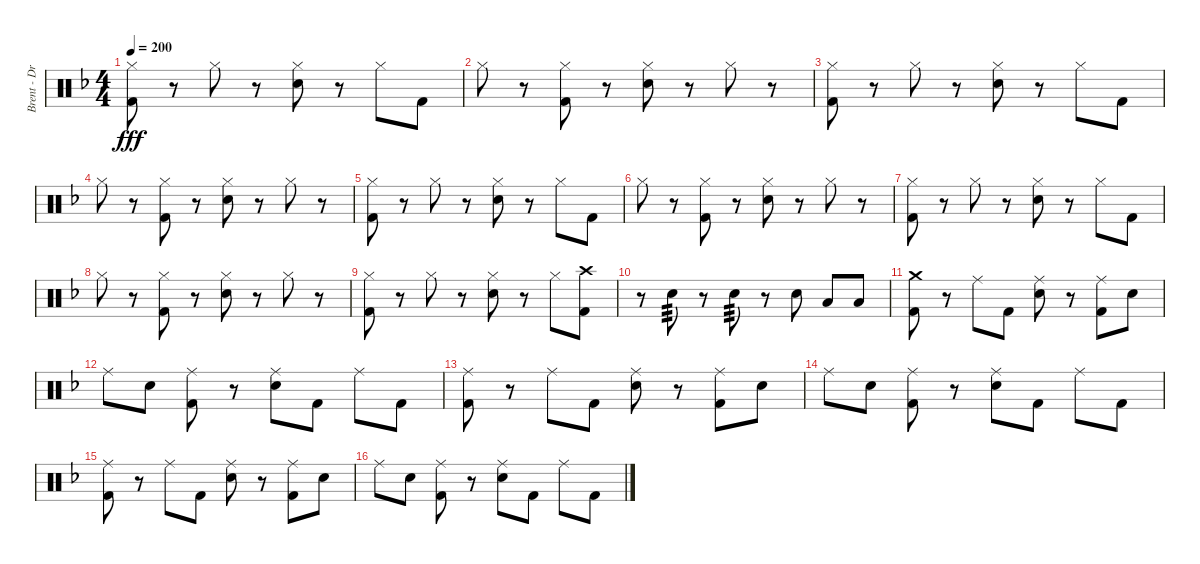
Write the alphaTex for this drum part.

\track ("Brent - Drums" "Brent - Dr") {instrument percussion}
\staff {score}
\articulation defaults
\ts (4 4)
\tempo 200
\clef neutral
\ks dminor
("Hi-Hat (closed)" "Kick (hit) 2").8{dy fff} r.8 "Hi-Hat (closed)".8 r.8 ("Hi-Hat (closed)" "Snare (hit) 2").8 r.8 "Hi-Hat (closed)".8 "Kick (hit) 2".8 |
"Hi-Hat (closed)".8 r.8 ("Hi-Hat (closed)" "Kick (hit) 2").8 r.8 ("Hi-Hat (closed)" "Snare (hit) 2").8 r.8 "Hi-Hat (closed)".8 r.8 |
("Hi-Hat (closed)" "Kick (hit) 2").8 r.8 "Hi-Hat (closed)".8 r.8 ("Hi-Hat (closed)" "Snare (hit) 2").8 r.8 "Hi-Hat (closed)".8 "Kick (hit) 2".8 |
"Hi-Hat (closed)".8 r.8 ("Hi-Hat (closed)" "Kick (hit) 2").8 r.8 ("Hi-Hat (closed)" "Snare (hit) 2").8 r.8 "Hi-Hat (closed)".8 r.8 |
("Hi-Hat (closed)" "Kick (hit) 2").8 r.8 "Hi-Hat (closed)".8 r.8 ("Hi-Hat (closed)" "Snare (hit) 2").8 r.8 "Hi-Hat (closed)".8 "Kick (hit) 2".8 |
"Hi-Hat (closed)".8 r.8 ("Hi-Hat (closed)" "Kick (hit) 2").8 r.8 ("Hi-Hat (closed)" "Snare (hit) 2").8 r.8 "Hi-Hat (closed)".8 r.8 |
("Hi-Hat (closed)" "Kick (hit) 2").8 r.8 "Hi-Hat (closed)".8 r.8 ("Hi-Hat (closed)" "Snare (hit) 2").8 r.8 "Hi-Hat (closed)".8 "Kick (hit) 2".8 |
"Hi-Hat (closed)".8 r.8 ("Hi-Hat (closed)" "Kick (hit) 2").8 r.8 ("Hi-Hat (closed)" "Snare (hit) 2").8 r.8 "Hi-Hat (closed)".8 r.8 |
("Hi-Hat (closed)" "Kick (hit) 2").8 r.8 "Hi-Hat (closed)".8 r.8 ("Hi-Hat (closed)" "Snare (hit) 2").8 r.8 "Hi-Hat (closed)".8 ("Crash high (hit)" "Kick (hit) 2").8 |
r.8 "Snare (hit) 2".8{tp 3} r.8 "Snare (hit) 2".8{tp 3} r.8 "Snare (hit) 2".8 "Low Tom (hit)".8 "Low Tom (hit)".8 |
("Crash medium (hit)" "Kick (hit) 2").8 r.8 "Ride (middle)".8 "Kick (hit) 2".8 ("Ride (middle)" "Snare (hit) 2").8 r.8 ("Ride (middle)" "Kick (hit) 2").8 "Snare (hit) 2".8 |
"Ride (middle)".8 "Snare (hit) 2".8 ("Ride (middle)" "Kick (hit) 2").8 r.8 ("Ride (middle)" "Snare (hit) 2").8 "Kick (hit) 2".8 "Ride (middle)".8 "Kick (hit) 2".8 |
("Ride (middle)" "Kick (hit) 2").8 r.8 "Ride (middle)".8 "Kick (hit) 2".8 ("Ride (middle)" "Snare (hit) 2").8 r.8 ("Ride (middle)" "Kick (hit) 2").8 "Snare (hit) 2".8 |
"Ride (middle)".8 "Snare (hit) 2".8 ("Ride (middle)" "Kick (hit) 2").8 r.8 ("Ride (middle)" "Snare (hit) 2").8 "Kick (hit) 2".8 "Ride (middle)".8 "Kick (hit) 2".8 |
("Ride (middle)" "Kick (hit) 2").8 r.8 "Ride (middle)".8 "Kick (hit) 2".8 ("Ride (middle)" "Snare (hit) 2").8 r.8 ("Ride (middle)" "Kick (hit) 2").8 "Snare (hit) 2".8 |
"Ride (middle)".8 "Snare (hit) 2".8 ("Ride (middle)" "Kick (hit) 2").8 r.8 ("Ride (middle)" "Snare (hit) 2").8 "Kick (hit) 2".8 "Ride (middle)".8 "Kick (hit) 2".8
